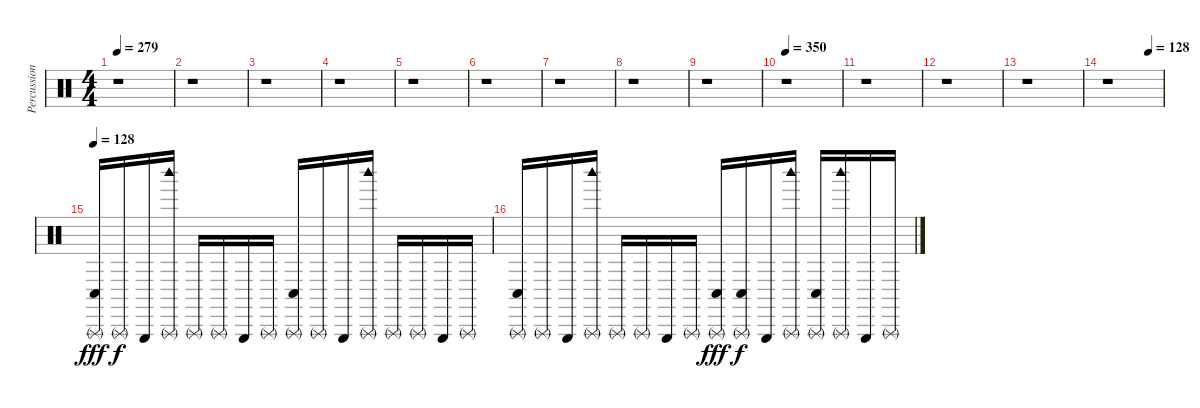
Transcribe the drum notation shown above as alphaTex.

\track ("Percussion" "Percussion") {instrument percussion}
\staff {score}
\articulation defaults
\ts (4 4)
\tempo 279
\clef neutral
\ks c
r.1{dy fff} |
r.1 |
r.1 |
r.1 |
r.1 |
r.1 |
r.1 |
r.1 |
r.1 |
\tempo 350
r.1 |
r.1 |
r.1 |
r.1 |
\tempo (128 0.75)
r.1 |
\tempo 128
("Conga low (hit)" "Triangle (rnute)").16 "Triangle (rnute)".16{dy f} "Triangle (hit)".16 ("Woodblock high (hit)" "Triangle (rnute)").16 "Triangle (rnute)".16 "Triangle (rnute)".16 "Triangle (hit)".16 "Triangle (rnute)".16 ("Conga low (hit)" "Triangle (rnute)").16 "Triangle (rnute)".16 "Triangle (hit)".16 ("Woodblock high (hit)" "Triangle (rnute)").16 "Triangle (rnute)".16 "Triangle (rnute)".16 "Triangle (hit)".16 "Triangle (rnute)".16 |
("Conga low (hit)" "Triangle (rnute)").16 "Triangle (rnute)".16 "Triangle (hit)".16 ("Woodblock high (hit)" "Triangle (rnute)").16 "Triangle (rnute)".16 "Triangle (rnute)".16 "Triangle (hit)".16 "Triangle (rnute)".16 ("Conga low (hit)" "Triangle (rnute)").16{dy fff} ("Conga low (hit)" "Triangle (rnute)").16{dy f} "Triangle (hit)".16 ("Woodblock high (hit)" "Triangle (rnute)").16 ("Conga low (hit)" "Triangle (rnute)").16 ("Woodblock high (hit)" "Triangle (rnute)").16 "Triangle (hit)".16 "Triangle (rnute)".16
